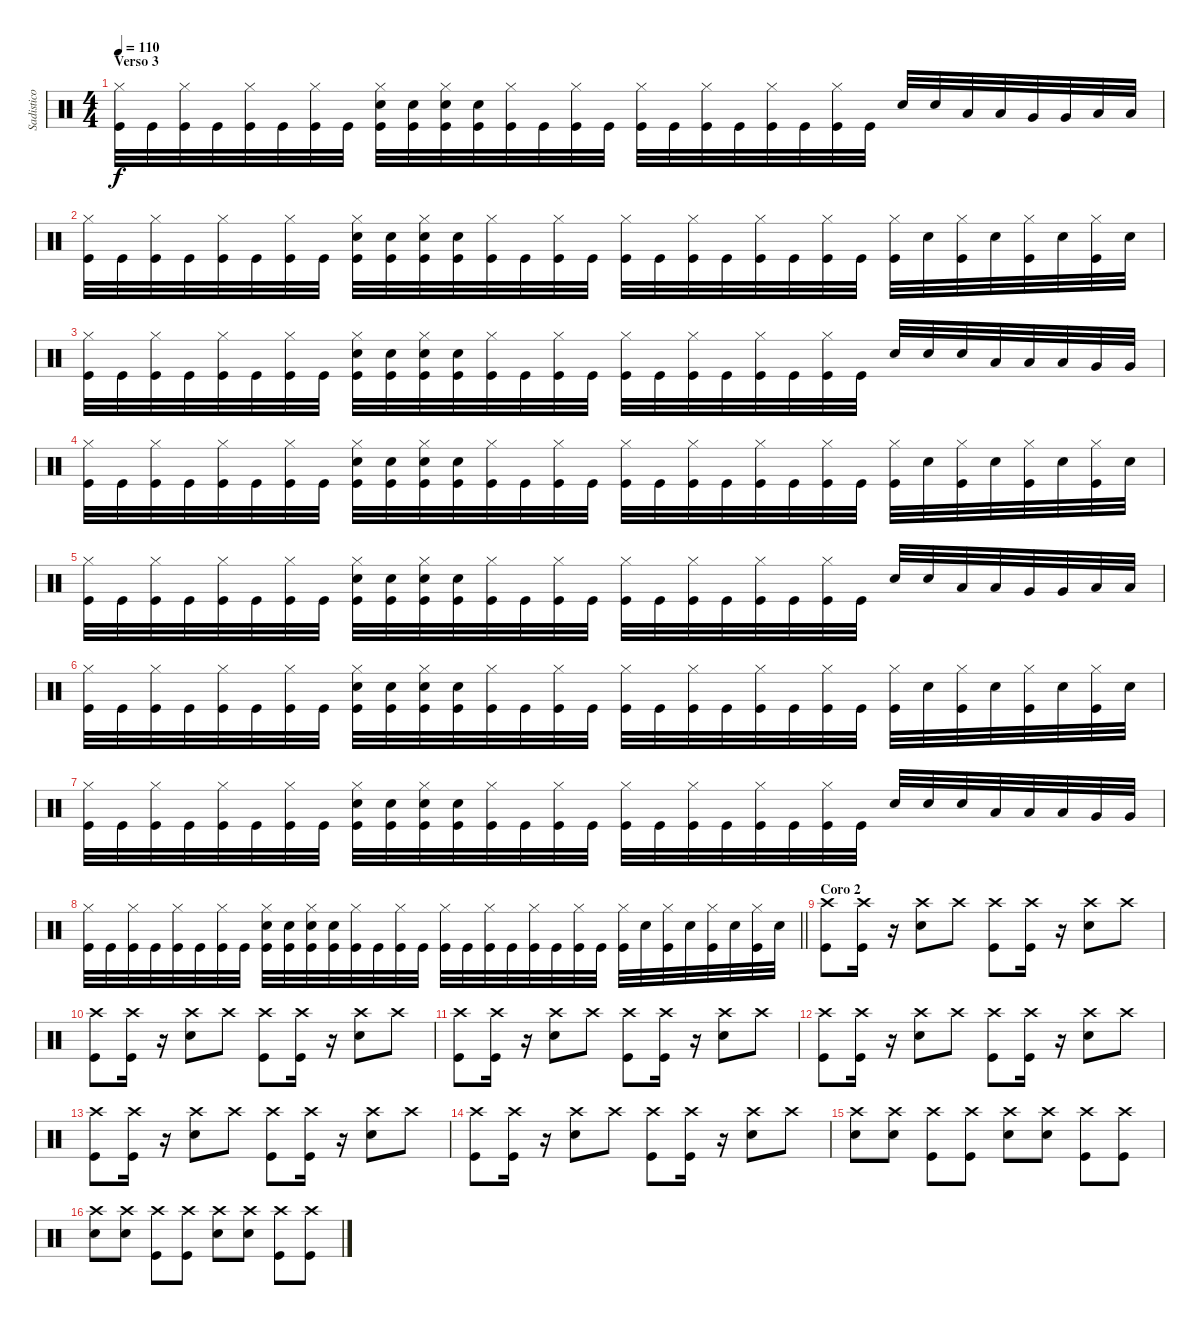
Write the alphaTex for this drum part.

\track ("Sadistico" "Sadistico") {solo instrument percussion}
\staff {score}
\articulation defaults
\ts (4 4)
\section ("" "Verso 3")
\tempo 110
\clef neutral
\ks c
("Hi-Hat (closed)" "Kick (hit)").32{dy f} "Kick (hit)".32 ("Hi-Hat (closed)" "Kick (hit)").32 "Kick (hit)".32 ("Hi-Hat (closed)" "Kick (hit)").32 "Kick (hit)".32 ("Hi-Hat (closed)" "Kick (hit)").32 "Kick (hit)".32 ("Hi-Hat (closed)" "Snare (hit) 2" "Kick (hit)").32 ("Snare (hit) 2" "Kick (hit)").32 ("Hi-Hat (closed)" "Snare (hit) 2" "Kick (hit)").32 ("Snare (hit) 2" "Kick (hit)").32 ("Hi-Hat (closed)" "Kick (hit)").32 "Kick (hit)".32 ("Hi-Hat (closed)" "Kick (hit)").32 "Kick (hit)".32 ("Hi-Hat (closed)" "Kick (hit)").32 "Kick (hit)".32 ("Hi-Hat (closed)" "Kick (hit)").32 "Kick (hit)".32 ("Hi-Hat (closed)" "Kick (hit)").32 "Kick (hit)".32 ("Hi-Hat (closed)" "Kick (hit)").32 "Kick (hit)".32 "Snare (hit) 2".32 "Snare (hit) 2".32 "Low Tom (hit)".32 "Low Tom (hit)".32 "Very Low Tom (hit)".32 "Very Low Tom (hit)".32 "Low Floor Tom (hit)".32 "Low Floor Tom (hit)".32 |
("Hi-Hat (closed)" "Kick (hit)").32 "Kick (hit)".32 ("Hi-Hat (closed)" "Kick (hit)").32 "Kick (hit)".32 ("Hi-Hat (closed)" "Kick (hit)").32 "Kick (hit)".32 ("Hi-Hat (closed)" "Kick (hit)").32 "Kick (hit)".32 ("Hi-Hat (closed)" "Snare (hit) 2" "Kick (hit)").32 ("Snare (hit) 2" "Kick (hit)").32 ("Hi-Hat (closed)" "Snare (hit) 2" "Kick (hit)").32 ("Snare (hit) 2" "Kick (hit)").32 ("Hi-Hat (closed)" "Kick (hit)").32 "Kick (hit)".32 ("Hi-Hat (closed)" "Kick (hit)").32 "Kick (hit)".32 ("Hi-Hat (closed)" "Kick (hit)").32 "Kick (hit)".32 ("Hi-Hat (closed)" "Kick (hit)").32 "Kick (hit)".32 ("Hi-Hat (closed)" "Kick (hit)").32 "Kick (hit)".32 ("Hi-Hat (closed)" "Kick (hit)").32 "Kick (hit)".32 ("Hi-Hat (closed)" "Kick (hit)").32 "Snare (hit) 2".32 ("Hi-Hat (closed)" "Kick (hit)").32 "Snare (hit) 2".32 ("Hi-Hat (closed)" "Kick (hit)").32 "Snare (hit) 2".32 ("Hi-Hat (closed)" "Kick (hit)").32 "Snare (hit) 2".32 |
("Hi-Hat (closed)" "Kick (hit)").32 "Kick (hit)".32 ("Hi-Hat (closed)" "Kick (hit)").32 "Kick (hit)".32 ("Hi-Hat (closed)" "Kick (hit)").32 "Kick (hit)".32 ("Hi-Hat (closed)" "Kick (hit)").32 "Kick (hit)".32 ("Hi-Hat (closed)" "Snare (hit) 2" "Kick (hit)").32 ("Snare (hit) 2" "Kick (hit)").32 ("Hi-Hat (closed)" "Snare (hit) 2" "Kick (hit)").32 ("Snare (hit) 2" "Kick (hit)").32 ("Hi-Hat (closed)" "Kick (hit)").32 "Kick (hit)".32 ("Hi-Hat (closed)" "Kick (hit)").32 "Kick (hit)".32 ("Hi-Hat (closed)" "Kick (hit)").32 "Kick (hit)".32 ("Hi-Hat (closed)" "Kick (hit)").32 "Kick (hit)".32 ("Hi-Hat (closed)" "Kick (hit)").32 "Kick (hit)".32 ("Hi-Hat (closed)" "Kick (hit)").32 "Kick (hit)".32 "Snare (hit) 2".32 "Snare (hit) 2".32 "Snare (hit) 2".32 "Low Tom (hit)".32 "Low Tom (hit)".32 "Low Tom (hit)".32 "Very Low Tom (hit)".32 "Very Low Tom (hit)".32 |
("Hi-Hat (closed)" "Kick (hit)").32 "Kick (hit)".32 ("Hi-Hat (closed)" "Kick (hit)").32 "Kick (hit)".32 ("Hi-Hat (closed)" "Kick (hit)").32 "Kick (hit)".32 ("Hi-Hat (closed)" "Kick (hit)").32 "Kick (hit)".32 ("Hi-Hat (closed)" "Snare (hit) 2" "Kick (hit)").32 ("Snare (hit) 2" "Kick (hit)").32 ("Hi-Hat (closed)" "Snare (hit) 2" "Kick (hit)").32 ("Snare (hit) 2" "Kick (hit)").32 ("Hi-Hat (closed)" "Kick (hit)").32 "Kick (hit)".32 ("Hi-Hat (closed)" "Kick (hit)").32 "Kick (hit)".32 ("Hi-Hat (closed)" "Kick (hit)").32 "Kick (hit)".32 ("Hi-Hat (closed)" "Kick (hit)").32 "Kick (hit)".32 ("Hi-Hat (closed)" "Kick (hit)").32 "Kick (hit)".32 ("Hi-Hat (closed)" "Kick (hit)").32 "Kick (hit)".32 ("Hi-Hat (closed)" "Kick (hit)").32 "Snare (hit) 2".32 ("Hi-Hat (closed)" "Kick (hit)").32 "Snare (hit) 2".32 ("Hi-Hat (closed)" "Kick (hit)").32 "Snare (hit) 2".32 ("Hi-Hat (closed)" "Kick (hit)").32 "Snare (hit) 2".32 |
("Hi-Hat (closed)" "Kick (hit)").32 "Kick (hit)".32 ("Hi-Hat (closed)" "Kick (hit)").32 "Kick (hit)".32 ("Hi-Hat (closed)" "Kick (hit)").32 "Kick (hit)".32 ("Hi-Hat (closed)" "Kick (hit)").32 "Kick (hit)".32 ("Hi-Hat (closed)" "Snare (hit) 2" "Kick (hit)").32 ("Snare (hit) 2" "Kick (hit)").32 ("Hi-Hat (closed)" "Snare (hit) 2" "Kick (hit)").32 ("Snare (hit) 2" "Kick (hit)").32 ("Hi-Hat (closed)" "Kick (hit)").32 "Kick (hit)".32 ("Hi-Hat (closed)" "Kick (hit)").32 "Kick (hit)".32 ("Hi-Hat (closed)" "Kick (hit)").32 "Kick (hit)".32 ("Hi-Hat (closed)" "Kick (hit)").32 "Kick (hit)".32 ("Hi-Hat (closed)" "Kick (hit)").32 "Kick (hit)".32 ("Hi-Hat (closed)" "Kick (hit)").32 "Kick (hit)".32 "Snare (hit) 2".32 "Snare (hit) 2".32 "Low Tom (hit)".32 "Low Tom (hit)".32 "Very Low Tom (hit)".32 "Very Low Tom (hit)".32 "Low Floor Tom (hit)".32 "Low Floor Tom (hit)".32 |
("Hi-Hat (closed)" "Kick (hit)").32 "Kick (hit)".32 ("Hi-Hat (closed)" "Kick (hit)").32 "Kick (hit)".32 ("Hi-Hat (closed)" "Kick (hit)").32 "Kick (hit)".32 ("Hi-Hat (closed)" "Kick (hit)").32 "Kick (hit)".32 ("Hi-Hat (closed)" "Snare (hit) 2" "Kick (hit)").32 ("Snare (hit) 2" "Kick (hit)").32 ("Hi-Hat (closed)" "Snare (hit) 2" "Kick (hit)").32 ("Snare (hit) 2" "Kick (hit)").32 ("Hi-Hat (closed)" "Kick (hit)").32 "Kick (hit)".32 ("Hi-Hat (closed)" "Kick (hit)").32 "Kick (hit)".32 ("Hi-Hat (closed)" "Kick (hit)").32 "Kick (hit)".32 ("Hi-Hat (closed)" "Kick (hit)").32 "Kick (hit)".32 ("Hi-Hat (closed)" "Kick (hit)").32 "Kick (hit)".32 ("Hi-Hat (closed)" "Kick (hit)").32 "Kick (hit)".32 ("Hi-Hat (closed)" "Kick (hit)").32 "Snare (hit) 2".32 ("Hi-Hat (closed)" "Kick (hit)").32 "Snare (hit) 2".32 ("Hi-Hat (closed)" "Kick (hit)").32 "Snare (hit) 2".32 ("Hi-Hat (closed)" "Kick (hit)").32 "Snare (hit) 2".32 |
("Hi-Hat (closed)" "Kick (hit)").32 "Kick (hit)".32 ("Hi-Hat (closed)" "Kick (hit)").32 "Kick (hit)".32 ("Hi-Hat (closed)" "Kick (hit)").32 "Kick (hit)".32 ("Hi-Hat (closed)" "Kick (hit)").32 "Kick (hit)".32 ("Hi-Hat (closed)" "Snare (hit) 2" "Kick (hit)").32 ("Snare (hit) 2" "Kick (hit)").32 ("Hi-Hat (closed)" "Snare (hit) 2" "Kick (hit)").32 ("Snare (hit) 2" "Kick (hit)").32 ("Hi-Hat (closed)" "Kick (hit)").32 "Kick (hit)".32 ("Hi-Hat (closed)" "Kick (hit)").32 "Kick (hit)".32 ("Hi-Hat (closed)" "Kick (hit)").32 "Kick (hit)".32 ("Hi-Hat (closed)" "Kick (hit)").32 "Kick (hit)".32 ("Hi-Hat (closed)" "Kick (hit)").32 "Kick (hit)".32 ("Hi-Hat (closed)" "Kick (hit)").32 "Kick (hit)".32 "Snare (hit) 2".32 "Snare (hit) 2".32 "Snare (hit) 2".32 "Low Tom (hit)".32 "Low Tom (hit)".32 "Low Tom (hit)".32 "Very Low Tom (hit)".32 "Very Low Tom (hit)".32 |
\barLineRight lightlight
("Hi-Hat (closed)" "Kick (hit)").32 "Kick (hit)".32 ("Hi-Hat (closed)" "Kick (hit)").32 "Kick (hit)".32 ("Hi-Hat (closed)" "Kick (hit)").32 "Kick (hit)".32 ("Hi-Hat (closed)" "Kick (hit)").32 "Kick (hit)".32 ("Hi-Hat (closed)" "Snare (hit) 2" "Kick (hit)").32 ("Snare (hit) 2" "Kick (hit)").32 ("Hi-Hat (closed)" "Snare (hit) 2" "Kick (hit)").32 ("Snare (hit) 2" "Kick (hit)").32 ("Hi-Hat (closed)" "Kick (hit)").32 "Kick (hit)".32 ("Hi-Hat (closed)" "Kick (hit)").32 "Kick (hit)".32 ("Hi-Hat (closed)" "Kick (hit)").32 "Kick (hit)".32 ("Hi-Hat (closed)" "Kick (hit)").32 "Kick (hit)".32 ("Hi-Hat (closed)" "Kick (hit)").32 "Kick (hit)".32 ("Hi-Hat (closed)" "Kick (hit)").32 "Kick (hit)".32 ("Hi-Hat (closed)" "Kick (hit)").32 "Snare (hit) 2".32 ("Hi-Hat (closed)" "Kick (hit)").32 "Snare (hit) 2".32 ("Hi-Hat (closed)" "Kick (hit)").32 "Snare (hit) 2".32 ("Hi-Hat (closed)" "Kick (hit)").32 "Snare (hit) 2".32 |
\section ("" "Coro 2")
("Crash high (hit)" "Kick (hit)").8 ("Crash high (hit)" "Kick (hit)").16 r.16 ("Crash high (hit)" "Snare (hit) 2").8 "Crash high (hit)".8 ("Crash high (hit)" "Kick (hit)").8 ("Crash high (hit)" "Kick (hit)").16 r.16 ("Crash high (hit)" "Snare (hit) 2").8 "Crash high (hit)".8 |
("Crash high (hit)" "Kick (hit)").8 ("Crash high (hit)" "Kick (hit)").16 r.16 ("Crash high (hit)" "Snare (hit) 2").8 "Crash high (hit)".8 ("Crash high (hit)" "Kick (hit)").8 ("Crash high (hit)" "Kick (hit)").16 r.16 ("Crash high (hit)" "Snare (hit) 2").8 "Crash high (hit)".8 |
("Crash high (hit)" "Kick (hit)").8 ("Crash high (hit)" "Kick (hit)").16 r.16 ("Crash high (hit)" "Snare (hit) 2").8 "Crash high (hit)".8 ("Crash high (hit)" "Kick (hit)").8 ("Crash high (hit)" "Kick (hit)").16 r.16 ("Crash high (hit)" "Snare (hit) 2").8 "Crash high (hit)".8 |
("Crash high (hit)" "Kick (hit)").8 ("Crash high (hit)" "Kick (hit)").16 r.16 ("Crash high (hit)" "Snare (hit) 2").8 "Crash high (hit)".8 ("Crash high (hit)" "Kick (hit)").8 ("Crash high (hit)" "Kick (hit)").16 r.16 ("Crash high (hit)" "Snare (hit) 2").8 "Crash high (hit)".8 |
("Crash high (hit)" "Kick (hit)").8 ("Crash high (hit)" "Kick (hit)").16 r.16 ("Crash high (hit)" "Snare (hit) 2").8 "Crash high (hit)".8 ("Crash high (hit)" "Kick (hit)").8 ("Crash high (hit)" "Kick (hit)").16 r.16 ("Crash high (hit)" "Snare (hit) 2").8 "Crash high (hit)".8 |
("Crash high (hit)" "Kick (hit)").8 ("Crash high (hit)" "Kick (hit)").16 r.16 ("Crash high (hit)" "Snare (hit) 2").8 "Crash high (hit)".8 ("Crash high (hit)" "Kick (hit)").8 ("Crash high (hit)" "Kick (hit)").16 r.16 ("Crash high (hit)" "Snare (hit) 2").8 "Crash high (hit)".8 |
("Crash high (hit)" "Snare (hit) 2").8 ("Crash high (hit)" "Snare (hit) 2").8 ("Crash high (hit)" "Kick (hit)").8 ("Crash high (hit)" "Kick (hit)").8 ("Crash high (hit)" "Snare (hit) 2").8 ("Crash high (hit)" "Snare (hit) 2").8 ("Crash high (hit)" "Kick (hit)").8 ("Crash high (hit)" "Kick (hit)").8 |
("Crash high (hit)" "Snare (hit) 2").8 ("Crash high (hit)" "Snare (hit) 2").8 ("Crash high (hit)" "Kick (hit)").8 ("Crash high (hit)" "Kick (hit)").8 ("Crash high (hit)" "Snare (hit) 2").8 ("Crash high (hit)" "Snare (hit) 2").8 ("Crash high (hit)" "Kick (hit)").8 ("Crash high (hit)" "Kick (hit)").8
